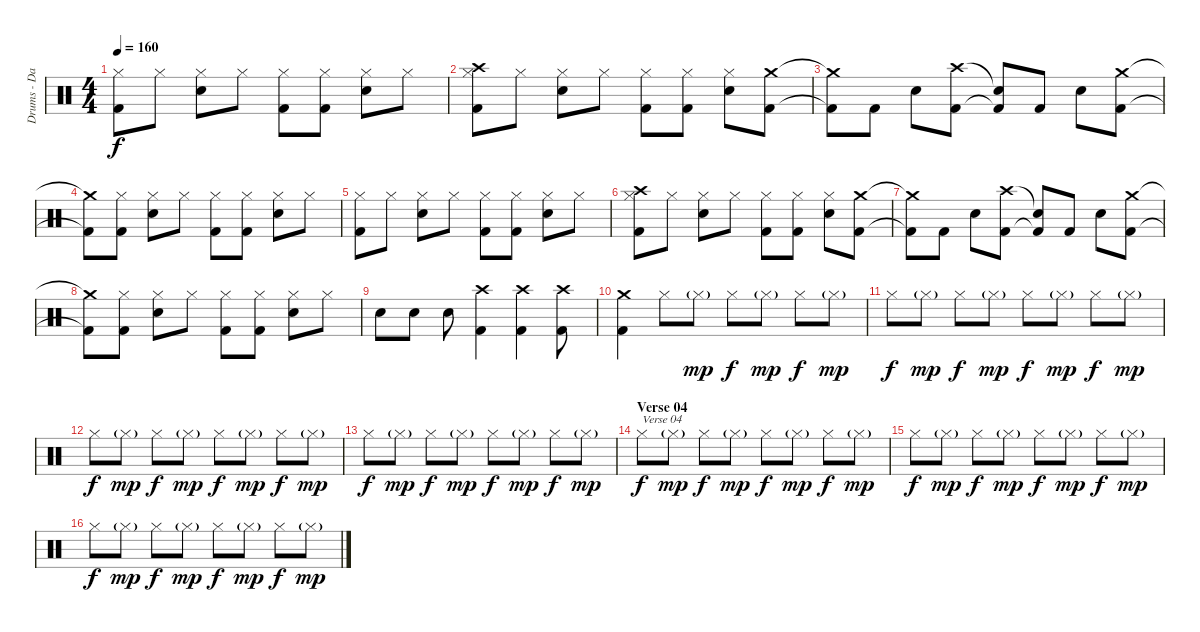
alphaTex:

\track ("Drums - Daniel Zimmermann" "Drums - Da") {instrument percussion}
\staff {score}
\articulation defaults
\ts (4 4)
\tempo 160
\clef neutral
\ks c
("Hi-Hat (closed)" "Kick (hit) 2").8{dy f} "Hi-Hat (closed)".8 ("Hi-Hat (closed)" "Snare (hit) 2").8 "Hi-Hat (closed)".8 ("Hi-Hat (closed)" "Kick (hit) 2").8 ("Hi-Hat (closed)" "Kick (hit) 2").8 ("Hi-Hat (closed)" "Snare (hit) 2").8 "Hi-Hat (closed)".8 |
("Hi-Hat (closed)" "Kick (hit) 2" "Crash high (hit)").8 "Hi-Hat (closed)".8 ("Hi-Hat (closed)" "Snare (hit) 2").8 "Hi-Hat (closed)".8 ("Hi-Hat (closed)" "Kick (hit) 2").8 ("Hi-Hat (closed)" "Kick (hit) 2").8 ("Hi-Hat (closed)" "Snare (hit) 2").8 ("Kick (hit) 2" "Crash medium (hit)").8 |
("Kick (hit) 2"{t} "Crash medium (hit)"{t}).8 "Kick (hit) 2".8 "Snare (hit) 2".8 ("Kick (hit) 2" "Crash high (hit)").8 ("Kick (hit) 2"{t} "Snare (hit)"{t}).8 "Kick (hit) 2".8 "Snare (hit) 2".8 ("Kick (hit) 2" "Crash medium (hit)").8 |
("Kick (hit) 2"{t} "Crash medium (hit)"{t}).8 ("Hi-Hat (closed)" "Kick (hit) 2").8 ("Hi-Hat (closed)" "Snare (hit) 2").8 "Hi-Hat (closed)".8 ("Hi-Hat (closed)" "Kick (hit) 2").8 ("Hi-Hat (closed)" "Kick (hit) 2").8 ("Hi-Hat (closed)" "Snare (hit) 2").8 "Hi-Hat (closed)".8 |
("Hi-Hat (closed)" "Kick (hit) 2").8 "Hi-Hat (closed)".8 ("Hi-Hat (closed)" "Snare (hit) 2").8 "Hi-Hat (closed)".8 ("Hi-Hat (closed)" "Kick (hit) 2").8 ("Hi-Hat (closed)" "Kick (hit) 2").8 ("Hi-Hat (closed)" "Snare (hit) 2").8 "Hi-Hat (closed)".8 |
("Hi-Hat (closed)" "Kick (hit) 2" "Crash high (hit)").8 "Hi-Hat (closed)".8 ("Hi-Hat (closed)" "Snare (hit) 2").8 "Hi-Hat (closed)".8 ("Hi-Hat (closed)" "Kick (hit) 2").8 ("Hi-Hat (closed)" "Kick (hit) 2").8 ("Hi-Hat (closed)" "Snare (hit) 2").8 ("Kick (hit) 2" "Crash medium (hit)").8 |
("Kick (hit) 2"{t} "Crash medium (hit)"{t}).8 "Kick (hit) 2".8 "Snare (hit) 2".8 ("Kick (hit) 2" "Crash high (hit)").8 ("Kick (hit) 2"{t} "Snare (hit)"{t}).8 "Kick (hit) 2".8 "Snare (hit) 2".8 ("Kick (hit) 2" "Crash medium (hit)").8 |
("Kick (hit) 2"{t} "Crash medium (hit)"{t}).8 ("Hi-Hat (closed)" "Kick (hit) 2").8 ("Hi-Hat (closed)" "Snare (hit) 2").8 "Hi-Hat (closed)".8 ("Hi-Hat (closed)" "Kick (hit) 2").8 ("Hi-Hat (closed)" "Kick (hit) 2").8 ("Hi-Hat (closed)" "Snare (hit) 2").8 "Hi-Hat (closed)".8 |
"Snare (hit) 2".8 "Snare (hit) 2".8 "Snare (hit) 2".8 ("Kick (hit) 2" "Crash high (hit)").4 ("Kick (hit) 2" "Crash high (hit)").4 ("Kick (hit) 2" "Crash high (hit)").8 |
("Kick (hit) 2" "Crash medium (hit)").4 "Hi-Hat (closed)".8 "Hi-Hat (closed)"{g}.8{dy mp} "Hi-Hat (closed)".8{dy f} "Hi-Hat (closed)"{g}.8{dy mp} "Hi-Hat (closed)".8{dy f} "Hi-Hat (closed)"{g}.8{dy mp} |
"Hi-Hat (closed)".8{dy f} "Hi-Hat (closed)"{g}.8{dy mp} "Hi-Hat (closed)".8{dy f} "Hi-Hat (closed)"{g}.8{dy mp} "Hi-Hat (closed)".8{dy f} "Hi-Hat (closed)"{g}.8{dy mp} "Hi-Hat (closed)".8{dy f} "Hi-Hat (closed)"{g}.8{dy mp} |
"Hi-Hat (closed)".8{dy f} "Hi-Hat (closed)"{g}.8{dy mp} "Hi-Hat (closed)".8{dy f} "Hi-Hat (closed)"{g}.8{dy mp} "Hi-Hat (closed)".8{dy f} "Hi-Hat (closed)"{g}.8{dy mp} "Hi-Hat (closed)".8{dy f} "Hi-Hat (closed)"{g}.8{dy mp} |
"Hi-Hat (closed)".8{dy f} "Hi-Hat (closed)"{g}.8{dy mp} "Hi-Hat (closed)".8{dy f} "Hi-Hat (closed)"{g}.8{dy mp} "Hi-Hat (closed)".8{dy f} "Hi-Hat (closed)"{g}.8{dy mp} "Hi-Hat (closed)".8{dy f} "Hi-Hat (closed)"{g}.8{dy mp} |
\section ("" "Verse 04")
"Hi-Hat (closed)".8{txt "Verse 04" dy f} "Hi-Hat (closed)"{g}.8{dy mp} "Hi-Hat (closed)".8{dy f} "Hi-Hat (closed)"{g}.8{dy mp} "Hi-Hat (closed)".8{dy f} "Hi-Hat (closed)"{g}.8{dy mp} "Hi-Hat (closed)".8{dy f} "Hi-Hat (closed)"{g}.8{dy mp} |
"Hi-Hat (closed)".8{dy f} "Hi-Hat (closed)"{g}.8{dy mp} "Hi-Hat (closed)".8{dy f} "Hi-Hat (closed)"{g}.8{dy mp} "Hi-Hat (closed)".8{dy f} "Hi-Hat (closed)"{g}.8{dy mp} "Hi-Hat (closed)".8{dy f} "Hi-Hat (closed)"{g}.8{dy mp} |
"Hi-Hat (closed)".8{dy f} "Hi-Hat (closed)"{g}.8{dy mp} "Hi-Hat (closed)".8{dy f} "Hi-Hat (closed)"{g}.8{dy mp} "Hi-Hat (closed)".8{dy f} "Hi-Hat (closed)"{g}.8{dy mp} "Hi-Hat (closed)".8{dy f} "Hi-Hat (closed)"{g}.8{dy mp}
